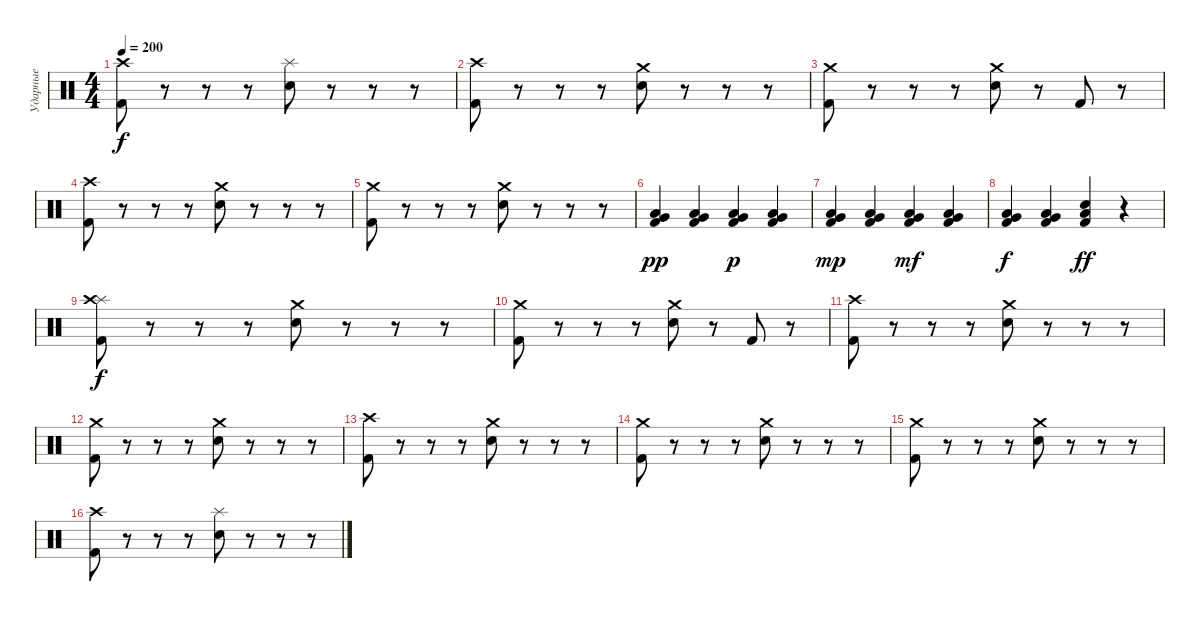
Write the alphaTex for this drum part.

\track ("Ударные" "Ударные") {instrument percussion}
\staff {score}
\articulation defaults
\ts (4 4)
\tempo 200
\clef neutral
\ks c
("Kick (hit) 2" "Crash high (hit)").8{dy f} r.8 r.8 r.8 ("Electric Snare (hit)" "Splash (hit)").8 r.8 r.8 r.8 |
("Kick (hit) 2" "Crash high (hit)").8 r.8 r.8 r.8 ("Electric Snare (hit)" "Crash medium (hit)").8 r.8 r.8 r.8 |
("Kick (hit) 2" "Crash medium (hit)").8 r.8 r.8 r.8 ("Electric Snare (hit)" "Crash medium (hit)").8 r.8 "Kick (hit) 2".8 r.8 |
("Kick (hit) 2" "Crash high (hit)").8 r.8 r.8 r.8 ("Electric Snare (hit)" "Crash medium (hit)").8 r.8 r.8 r.8 |
("Kick (hit) 2" "Crash medium (hit)").8 r.8 r.8 r.8 ("Electric Snare (hit)" "Crash medium (hit)").8 r.8 r.8 r.8 |
("Kick (hit) 2" "Low Floor Tom (hit)" "Very Low Tom (hit)").4{dy pp} ("Kick (hit) 2" "Low Floor Tom (hit)" "Very Low Tom (hit)").4 ("Kick (hit) 2" "Low Floor Tom (hit)" "Very Low Tom (hit)").4{dy p} ("Kick (hit) 2" "Low Floor Tom (hit)" "Very Low Tom (hit)").4 |
("Kick (hit) 2" "Low Floor Tom (hit)" "Very Low Tom (hit)").4{dy mp} ("Kick (hit) 2" "Low Floor Tom (hit)" "Very Low Tom (hit)").4 ("Kick (hit) 2" "Low Floor Tom (hit)" "Very Low Tom (hit)").4{dy mf} ("Kick (hit) 2" "Low Floor Tom (hit)" "Very Low Tom (hit)").4 |
("Kick (hit) 2" "Low Floor Tom (hit)" "Very Low Tom (hit)").4{dy f} ("Kick (hit) 2" "Low Floor Tom (hit)" "Very Low Tom (hit)").4 ("Kick (hit) 2" "Low Floor Tom (hit)" "Electric Snare (hit)").4{dy ff} r.4 |
("Kick (hit) 2" "Splash (hit)" "Crash high (hit)").8{dy f} r.8 r.8 r.8 ("Electric Snare (hit)" "Crash medium (hit)").8 r.8 r.8 r.8 |
("Kick (hit) 2" "Crash medium (hit)").8 r.8 r.8 r.8 ("Electric Snare (hit)" "Crash medium (hit)").8 r.8 "Kick (hit) 2".8 r.8 |
("Kick (hit) 2" "Crash high (hit)").8 r.8 r.8 r.8 ("Electric Snare (hit)" "Crash medium (hit)").8 r.8 r.8 r.8 |
("Kick (hit) 2" "Crash medium (hit)").8 r.8 r.8 r.8 ("Electric Snare (hit)" "Crash medium (hit)").8 r.8 r.8 r.8 |
("Kick (hit) 2" "Crash high (hit)").8 r.8 r.8 r.8 ("Electric Snare (hit)" "Crash medium (hit)").8 r.8 r.8 r.8 |
("Kick (hit) 2" "Crash medium (hit)").8 r.8 r.8 r.8 ("Electric Snare (hit)" "Crash medium (hit)").8 r.8 r.8 r.8 |
("Kick (hit) 2" "Crash medium (hit)").8 r.8 r.8 r.8 ("Electric Snare (hit)" "Crash medium (hit)").8 r.8 r.8 r.8 |
("Kick (hit) 2" "Crash high (hit)").8 r.8 r.8 r.8 ("Electric Snare (hit)" "Splash (hit)").8 r.8 r.8 r.8
